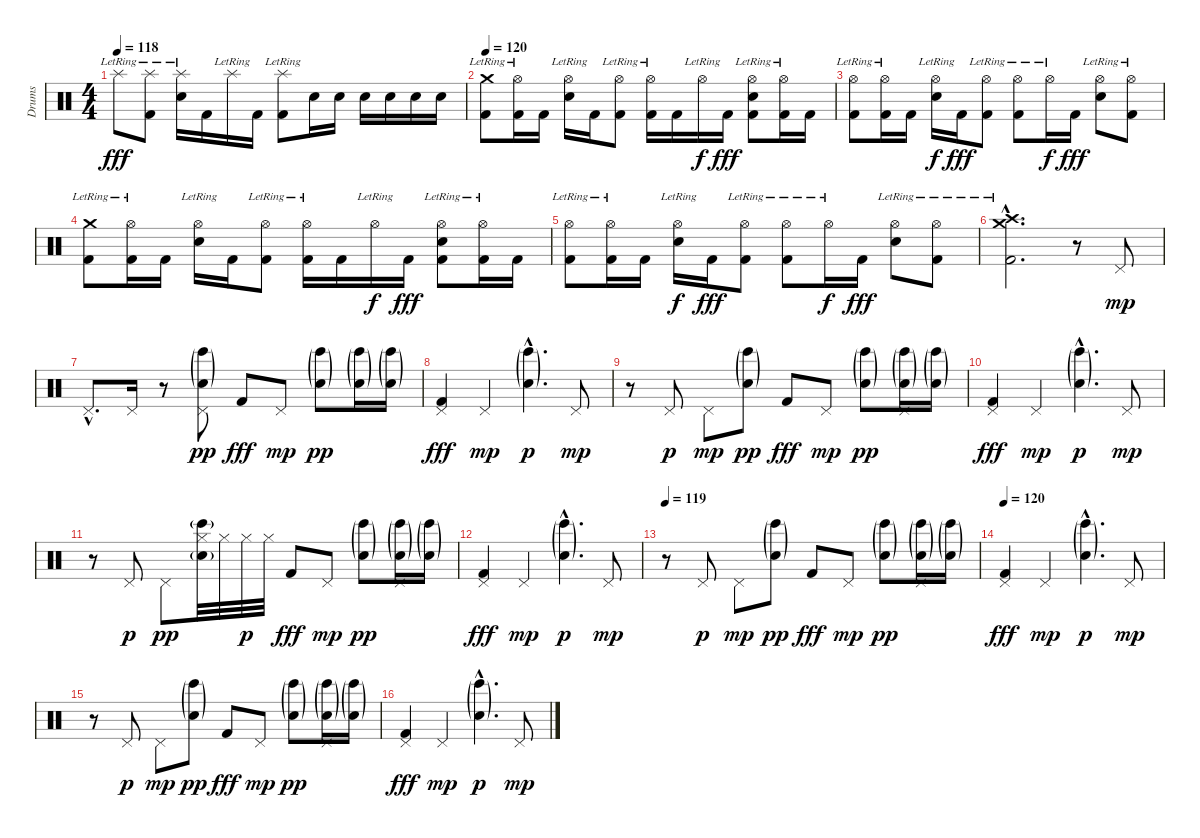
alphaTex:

\track ("Drums" "Drums") {instrument percussion}
\staff {score}
\articulation defaults
\ts (4 4)
\tempo 118
\clef neutral
\ks c "Splash (hit)"{lr}.8{dy fff}
("Splash (hit)"{lr} "Kick (hit) 2").8 ("Splash (hit)"{lr} "Electric Snare (hit)").16 "Kick (hit) 2".16 "Splash (hit)"{lr}.16 "Kick (hit) 2".16 ("Splash (hit)"{lr} "Kick (hit) 2").8 "Electric Snare (hit)".16 "Electric Snare (hit)".16 "Electric Snare (hit)".16 "Electric Snare (hit)".16 "Electric Snare (hit)".16 "Electric Snare (hit)".16 |
\tempo 120
("Crash medium (hit)"{lr} "Kick (hit) 2").8 ("Hi-Hat (open)"{lr} "Kick (hit) 2").16 "Kick (hit) 2".16 ("Hi-Hat (open)"{lr} "Electric Snare (hit)").16 "Kick (hit) 2".16 ("Hi-Hat (open)"{lr} "Kick (hit) 2").8 ("Hi-Hat (open)"{lr} "Kick (hit) 2").16 "Kick (hit) 2".16 "Hi-Hat (open)"{lr}.16{dy f} "Kick (hit) 2".16{dy fff} ("Hi-Hat (open)"{lr} "Electric Snare (hit)" "Kick (hit) 2").8 ("Hi-Hat (open)"{lr} "Kick (hit) 2").16 "Kick (hit) 2".16 |
("Hi-Hat (open)"{lr} "Kick (hit) 2").8 ("Hi-Hat (open)"{lr} "Kick (hit) 2").16 "Kick (hit) 2".16 ("Hi-Hat (open)"{lr} "Electric Snare (hit)").16{dy f} "Kick (hit) 2".16{dy fff} ("Hi-Hat (open)"{lr} "Kick (hit) 2").8 ("Hi-Hat (open)"{lr} "Kick (hit) 2").8 "Hi-Hat (open)"{lr}.16{dy f} "Kick (hit) 2".16{dy fff} ("Hi-Hat (open)"{lr} "Electric Snare (hit)").8 ("Hi-Hat (open)"{lr} "Kick (hit) 2").8 |
("Crash medium (hit)"{lr} "Kick (hit) 2").8 ("Hi-Hat (open)"{lr} "Kick (hit) 2").16 "Kick (hit) 2".16 ("Hi-Hat (open)"{lr} "Electric Snare (hit)").16 "Kick (hit) 2".16 ("Hi-Hat (open)"{lr} "Kick (hit) 2").8 ("Hi-Hat (open)"{lr} "Kick (hit) 2").16 "Kick (hit) 2".16 "Hi-Hat (open)"{lr}.16{dy f} "Kick (hit) 2".16{dy fff} ("Hi-Hat (open)"{lr} "Electric Snare (hit)" "Kick (hit) 2").8 ("Hi-Hat (open)"{lr} "Kick (hit) 2").16 "Kick (hit) 2".16 |
("Hi-Hat (open)"{lr} "Kick (hit) 2").8 ("Hi-Hat (open)"{lr} "Kick (hit) 2").16 "Kick (hit) 2".16 ("Hi-Hat (open)"{lr} "Electric Snare (hit)").16{dy f} "Kick (hit) 2".16{dy fff} ("Hi-Hat (open)"{lr} "Kick (hit) 2").8 ("Hi-Hat (open)"{lr} "Kick (hit) 2").8 "Hi-Hat (open)"{lr}.16{dy f} "Kick (hit) 2".16{dy fff} ("Hi-Hat (open)"{lr} "Electric Snare (hit)").8 ("Hi-Hat (open)"{lr} "Kick (hit) 2").8 |
("Crash high (hit)"{hac lr} "Crash medium (hit)"{hac lr} "Kick (hit) 2"{hac}).2{d} r.8 "Pedal Hi-Hat (hit)".8{dy mp} |
"Pedal Hi-Hat (hit)"{hac}.8{d} "Pedal Hi-Hat (hit)".16 r.8 ("Pedal Hi-Hat (hit)" "Bongo High (hit)"{g} "Electric Snare (hit)"{g}).8{dy pp} "Kick (hit) 2".8{dy fff} "Pedal Hi-Hat (hit)".8{dy mp} ("Bongo High (hit)"{g} "Electric Snare (hit)"{g}).8{dy pp} ("Bongo High (hit)"{g} "Electric Snare (hit)"{g}).16 ("Bongo High (hit)"{g} "Electric Snare (hit)"{g}).16 |
("Pedal Hi-Hat (hit)" "Kick (hit) 2").4{dy fff} "Pedal Hi-Hat (hit)".4{dy mp} ("Bongo High (hit)"{g hac} "Electric Snare (hit)"{g hac}).4{d dy p} "Pedal Hi-Hat (hit)".8{dy mp} |
r.8 "Pedal Hi-Hat (hit)".8{dy p} "Pedal Hi-Hat (hit)".8{dy mp} ("Bongo High (hit)"{g} "Electric Snare (hit)"{g}).8{dy pp} "Kick (hit) 2".8{dy fff} "Pedal Hi-Hat (hit)".8{dy mp} ("Bongo High (hit)"{g} "Electric Snare (hit)"{g}).8{dy pp} ("Pedal Hi-Hat (hit)" "Bongo High (hit)"{g} "Electric Snare (hit)"{g}).16 ("Bongo High (hit)"{g} "Electric Snare (hit)"{g}).16 |
("Pedal Hi-Hat (hit)" "Kick (hit) 2").4{dy fff} "Pedal Hi-Hat (hit)".4{dy mp} ("Bongo High (hit)"{g hac} "Electric Snare (hit)"{g hac}).4{d dy p} "Pedal Hi-Hat (hit)".8{dy mp} |
r.8 "Pedal Hi-Hat (hit)".8{dy p} "Pedal Hi-Hat (hit)".8{dy pp} ("Hi-Hat (closed)" "Bongo High (hit)"{g} "Electric Snare (hit)"{g}).32 "Hi-Hat (closed)".32 "Hi-Hat (closed)".32{dy p} "Hi-Hat (closed)".32 "Kick (hit) 2".8{dy fff} "Pedal Hi-Hat (hit)".8{dy mp} ("Bongo High (hit)"{g} "Electric Snare (hit)"{g}).8{dy pp} ("Pedal Hi-Hat (hit)" "Bongo High (hit)"{g} "Electric Snare (hit)"{g}).16 ("Bongo High (hit)"{g} "Electric Snare (hit)"{g}).16 |
("Pedal Hi-Hat (hit)" "Kick (hit) 2").4{dy fff} "Pedal Hi-Hat (hit)".4{dy mp} ("Bongo High (hit)"{g hac} "Electric Snare (hit)"{g hac}).4{d dy p} "Pedal Hi-Hat (hit)".8{dy mp} |
\tempo 119
r.8 "Pedal Hi-Hat (hit)".8{dy p} "Pedal Hi-Hat (hit)".8{dy mp} ("Bongo High (hit)"{g} "Electric Snare (hit)"{g}).8{dy pp} "Kick (hit) 2".8{dy fff} "Pedal Hi-Hat (hit)".8{dy mp} ("Bongo High (hit)"{g} "Electric Snare (hit)"{g}).8{dy pp} ("Pedal Hi-Hat (hit)" "Bongo High (hit)"{g} "Electric Snare (hit)"{g}).16 ("Bongo High (hit)"{g} "Electric Snare (hit)"{g}).16 |
\tempo 120
("Pedal Hi-Hat (hit)" "Kick (hit) 2").4{dy fff} "Pedal Hi-Hat (hit)".4{dy mp} ("Bongo High (hit)"{g hac} "Electric Snare (hit)"{g hac}).4{d dy p} "Pedal Hi-Hat (hit)".8{dy mp} |
r.8 "Pedal Hi-Hat (hit)".8{dy p} "Pedal Hi-Hat (hit)".8{dy mp} ("Bongo High (hit)"{g} "Electric Snare (hit)"{g}).8{dy pp} "Kick (hit) 2".8{dy fff} "Pedal Hi-Hat (hit)".8{dy mp} ("Bongo High (hit)"{g} "Electric Snare (hit)"{g}).8{dy pp} ("Pedal Hi-Hat (hit)" "Bongo High (hit)"{g} "Electric Snare (hit)"{g}).16 ("Bongo High (hit)"{g} "Electric Snare (hit)"{g}).16 |
("Pedal Hi-Hat (hit)" "Kick (hit) 2").4{dy fff} "Pedal Hi-Hat (hit)".4{dy mp} ("Bongo High (hit)"{g hac} "Electric Snare (hit)"{g hac}).4{d dy p} "Pedal Hi-Hat (hit)".8{dy mp}
